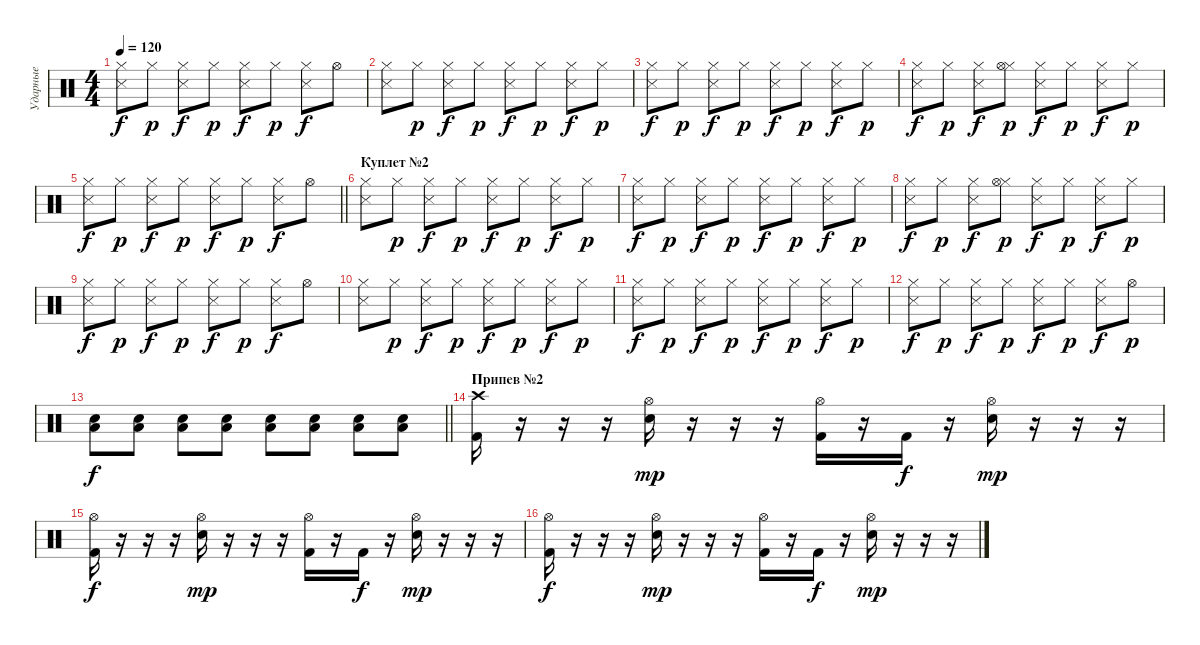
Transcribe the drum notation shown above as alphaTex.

\track ("Ударные" "Ударные") {instrument percussion}
\staff {score}
\articulation defaults
\ts (4 4)
\tempo 120
\clef neutral
\ks c
("Hi-Hat (closed)" "Snare (side stick) 3").8{dy f} "Hi-Hat (closed)".8{dy p} ("Hi-Hat (closed)" "Snare (side stick) 3").8{dy f} "Hi-Hat (closed)".8{dy p} ("Hi-Hat (closed)" "Snare (side stick) 3").8{dy f} "Hi-Hat (closed)".8{dy p} ("Hi-Hat (closed)" "Snare (side stick) 3").8{dy f} "Hi-Hat (open)".8 |
("Hi-Hat (closed)" "Snare (side stick) 3").8 "Hi-Hat (closed)".8{dy p} ("Hi-Hat (closed)" "Snare (side stick) 3").8{dy f} "Hi-Hat (closed)".8{dy p} ("Hi-Hat (closed)" "Snare (side stick) 3").8{dy f} "Hi-Hat (closed)".8{dy p} ("Hi-Hat (closed)" "Snare (side stick) 3").8{dy f} "Hi-Hat (closed)".8{dy p} |
("Hi-Hat (closed)" "Snare (side stick) 3").8{dy f} "Hi-Hat (closed)".8{dy p} ("Hi-Hat (closed)" "Snare (side stick) 3").8{dy f} "Hi-Hat (closed)".8{dy p} ("Hi-Hat (closed)" "Snare (side stick) 3").8{dy f} "Hi-Hat (closed)".8{dy p} ("Hi-Hat (closed)" "Snare (side stick) 3").8{dy f} "Hi-Hat (closed)".8{dy p} |
("Hi-Hat (closed)" "Snare (side stick) 3").8{dy f} "Hi-Hat (closed)".8{dy p} ("Hi-Hat (closed)" "Snare (side stick) 3").8{dy f} ("Hi-Hat (closed)" "Hi-Hat (open)").8{dy p} ("Hi-Hat (closed)" "Snare (side stick) 3").8{dy f} "Hi-Hat (closed)".8{dy p} ("Hi-Hat (closed)" "Snare (side stick) 3").8{dy f} "Hi-Hat (closed)".8{dy p} |
\barLineRight lightlight
("Hi-Hat (closed)" "Snare (side stick) 3").8{dy f} "Hi-Hat (closed)".8{dy p} ("Hi-Hat (closed)" "Snare (side stick) 3").8{dy f} "Hi-Hat (closed)".8{dy p} ("Hi-Hat (closed)" "Snare (side stick) 3").8{dy f} "Hi-Hat (closed)".8{dy p} ("Hi-Hat (closed)" "Snare (side stick) 3").8{dy f} "Hi-Hat (open)".8 |
\section ("" "Куплет №2")
("Hi-Hat (closed)" "Snare (side stick) 3").8 "Hi-Hat (closed)".8{dy p} ("Hi-Hat (closed)" "Snare (side stick) 3").8{dy f} "Hi-Hat (closed)".8{dy p} ("Hi-Hat (closed)" "Snare (side stick) 3").8{dy f} "Hi-Hat (closed)".8{dy p} ("Hi-Hat (closed)" "Snare (side stick) 3").8{dy f} "Hi-Hat (closed)".8{dy p} |
("Hi-Hat (closed)" "Snare (side stick) 3").8{dy f} "Hi-Hat (closed)".8{dy p} ("Hi-Hat (closed)" "Snare (side stick) 3").8{dy f} "Hi-Hat (closed)".8{dy p} ("Hi-Hat (closed)" "Snare (side stick) 3").8{dy f} "Hi-Hat (closed)".8{dy p} ("Hi-Hat (closed)" "Snare (side stick) 3").8{dy f} "Hi-Hat (closed)".8{dy p} |
("Hi-Hat (closed)" "Snare (side stick) 3").8{dy f} "Hi-Hat (closed)".8{dy p} ("Hi-Hat (closed)" "Snare (side stick) 3").8{dy f} ("Hi-Hat (closed)" "Hi-Hat (open)").8{dy p} ("Hi-Hat (closed)" "Snare (side stick) 3").8{dy f} "Hi-Hat (closed)".8{dy p} ("Hi-Hat (closed)" "Snare (side stick) 3").8{dy f} "Hi-Hat (closed)".8{dy p} |
("Hi-Hat (closed)" "Snare (side stick) 3").8{dy f} "Hi-Hat (closed)".8{dy p} ("Hi-Hat (closed)" "Snare (side stick) 3").8{dy f} "Hi-Hat (closed)".8{dy p} ("Hi-Hat (closed)" "Snare (side stick) 3").8{dy f} "Hi-Hat (closed)".8{dy p} ("Hi-Hat (closed)" "Snare (side stick) 3").8{dy f} "Hi-Hat (open)".8 |
("Hi-Hat (closed)" "Snare (side stick) 3").8 "Hi-Hat (closed)".8{dy p} ("Hi-Hat (closed)" "Snare (side stick) 3").8{dy f} "Hi-Hat (closed)".8{dy p} ("Hi-Hat (closed)" "Snare (side stick) 3").8{dy f} "Hi-Hat (closed)".8{dy p} ("Hi-Hat (closed)" "Snare (side stick) 3").8{dy f} "Hi-Hat (closed)".8{dy p} |
("Hi-Hat (closed)" "Snare (side stick) 3").8{dy f} "Hi-Hat (closed)".8{dy p} ("Hi-Hat (closed)" "Snare (side stick) 3").8{dy f} "Hi-Hat (closed)".8{dy p} ("Hi-Hat (closed)" "Snare (side stick) 3").8{dy f} "Hi-Hat (closed)".8{dy p} ("Hi-Hat (closed)" "Snare (side stick) 3").8{dy f} "Hi-Hat (closed)".8{dy p} |
("Hi-Hat (closed)" "Snare (side stick) 3").8{dy f} "Hi-Hat (closed)".8{dy p} ("Hi-Hat (closed)" "Snare (side stick) 3").8{dy f} "Hi-Hat (closed)".8{dy p} ("Hi-Hat (closed)" "Snare (side stick) 3").8{dy f} "Hi-Hat (closed)".8{dy p} ("Hi-Hat (closed)" "Snare (side stick) 3").8{dy f} "Hi-Hat (open)".8{dy p} |
\barLineRight lightlight
("Low Floor Tom (hit)" "Snare (hit) 2").8{dy f} ("Low Floor Tom (hit)" "Snare (hit) 2").8 ("Low Floor Tom (hit)" "Snare (hit) 2").8 ("Low Floor Tom (hit)" "Snare (hit) 2").8 ("Low Floor Tom (hit)" "Snare (hit) 2").8 ("Low Floor Tom (hit)" "Snare (hit) 2").8 ("Low Floor Tom (hit)" "Snare (hit) 2").8 ("Low Floor Tom (hit)" "Snare (hit) 2").8 |
\section ("" "Припев №2")
("Kick (hit) 2" "Crash high (hit)").16 r.16 r.16 r.16 ("Snare (hit) 2" "Hi-Hat (open)").16{dy mp} r.16 r.16 r.16 ("Kick (hit) 2" "Hi-Hat (open)").16 r.16 "Kick (hit) 2".16{dy f} r.16 ("Snare (hit) 2" "Hi-Hat (open)").16{dy mp} r.16 r.16 r.16 |
("Kick (hit) 2" "Hi-Hat (open)").16{dy f} r.16 r.16 r.16 ("Snare (hit) 2" "Hi-Hat (open)").16{dy mp} r.16 r.16 r.16 ("Kick (hit) 2" "Hi-Hat (open)").16 r.16 "Kick (hit) 2".16{dy f} r.16 ("Snare (hit) 2" "Hi-Hat (open)").16{dy mp} r.16 r.16 r.16 |
("Kick (hit) 2" "Hi-Hat (open)").16{dy f} r.16 r.16 r.16 ("Snare (hit) 2" "Hi-Hat (open)").16{dy mp} r.16 r.16 r.16 ("Kick (hit) 2" "Hi-Hat (open)").16 r.16 "Kick (hit) 2".16{dy f} r.16 ("Snare (hit) 2" "Hi-Hat (open)").16{dy mp} r.16 r.16 r.16
